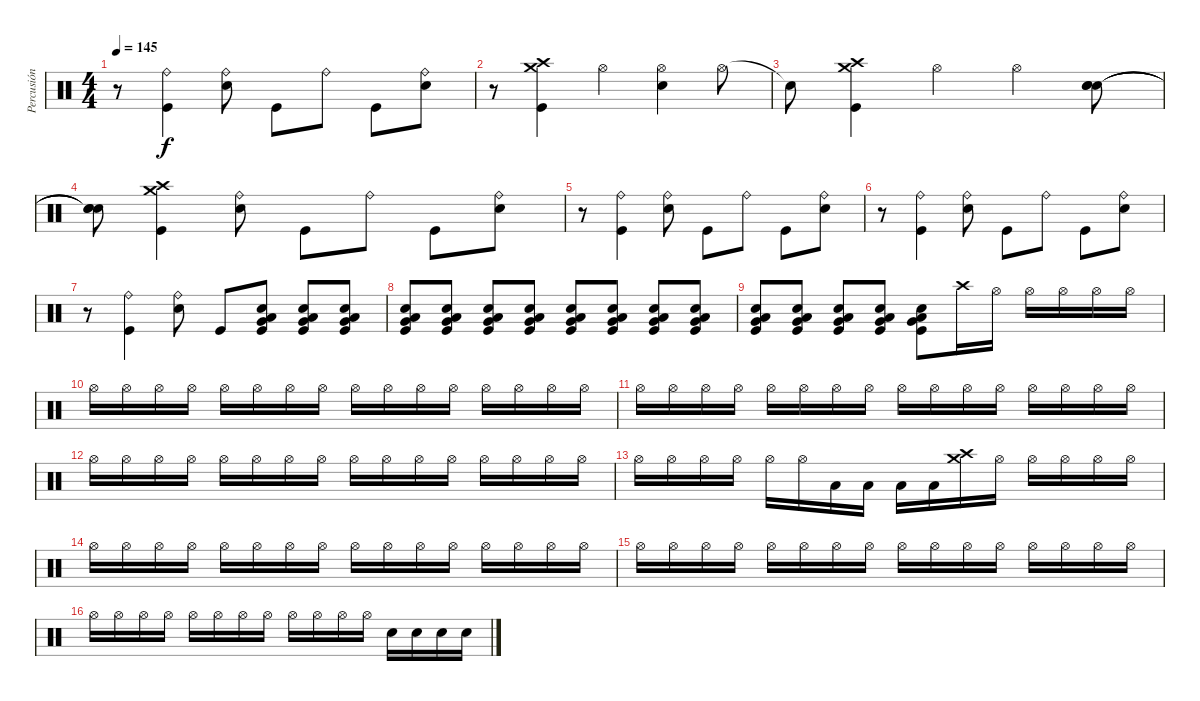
\track ("Percusión" "Percusión") {instrument percussion}
\staff {score}
\articulation defaults
\ts (4 4)
\tempo 145
\clef neutral
\ks c
r.8{dy f} ("Ride (bell)" "Kick (hit)").4 ("Ride (bell)" "Snare (hit) 2").8 "Kick (hit)".8 "Ride (bell)".8 "Kick (hit)".8 ("Ride (bell)" "Snare (hit) 2").8 |
r.8 ("Crash high (hit)" "Crash medium (hit)" "Kick (hit)").4 "Hi-Hat (open)".4 ("Hi-Hat (open)" "Snare (hit) 2").4 "Hi-Hat (open)".8 |
"Snare (hit)"{t}.8 ("Crash high (hit)" "Crash medium (hit)" "Kick (hit)").4 "Hi-Hat (open)".4 "Hi-Hat (open)".4 ("Snare (hit) 2" "Snare (hit) 2" "Snare (hit) 2").8 |
("Snare (hit)"{t} "Snare (hit)"{t} "Snare (hit)"{t}).8 ("Crash medium (hit)" "Crash high (hit)" "Kick (hit)").4 ("Ride (bell)" "Snare (hit) 2").8 "Kick (hit)".8 "Ride (bell)".8 "Kick (hit)".8 ("Ride (bell)" "Snare (hit) 2").8 |
r.8 ("Ride (bell)" "Kick (hit)").4 ("Ride (bell)" "Snare (hit) 2").8 "Kick (hit)".8 "Ride (bell)".8 "Kick (hit)".8 ("Ride (bell)" "Snare (hit) 2").8 |
r.8 ("Ride (bell)" "Kick (hit)").4 ("Ride (bell)" "Snare (hit) 2").8 "Kick (hit)".8 "Ride (bell)".8 "Kick (hit)".8 ("Ride (bell)" "Snare (hit) 2").8 |
r.8 ("Ride (bell)" "Kick (hit)").4 ("Ride (bell)" "Snare (hit) 2").8 "Kick (hit)".8 ("Very Low Tom (hit)" "Low Tom (hit)" "Snare (hit) 2" "Kick (hit)").8 ("Very Low Tom (hit)" "Low Tom (hit)" "Snare (hit) 2" "Kick (hit)").8 ("Very Low Tom (hit)" "Low Tom (hit)" "Snare (hit) 2" "Kick (hit)").8 |
("Very Low Tom (hit)" "Low Tom (hit)" "Snare (hit) 2" "Kick (hit)").8 ("Very Low Tom (hit)" "Low Tom (hit)" "Snare (hit) 2" "Kick (hit)").8 ("Very Low Tom (hit)" "Low Tom (hit)" "Snare (hit) 2" "Kick (hit)").8 ("Very Low Tom (hit)" "Low Tom (hit)" "Snare (hit) 2" "Kick (hit)").8 ("Very Low Tom (hit)" "Low Tom (hit)" "Snare (hit) 2" "Kick (hit)").8 ("Very Low Tom (hit)" "Low Tom (hit)" "Snare (hit) 2" "Kick (hit)").8 ("Very Low Tom (hit)" "Low Tom (hit)" "Snare (hit) 2" "Kick (hit)").8 ("Very Low Tom (hit)" "Low Tom (hit)" "Snare (hit) 2" "Kick (hit)").8 |
("Very Low Tom (hit)" "Low Tom (hit)" "Snare (hit) 2" "Kick (hit)").8 ("Very Low Tom (hit)" "Low Tom (hit)" "Snare (hit) 2" "Kick (hit)").8 ("Very Low Tom (hit)" "Low Tom (hit)" "Snare (hit) 2" "Kick (hit)").8 ("Very Low Tom (hit)" "Low Tom (hit)" "Snare (hit) 2" "Kick (hit)").8 ("Very Low Tom (hit)" "Low Tom (hit)" "Snare (hit) 2" "Kick (hit)").8 "Crash high (hit)".16 "Hi-Hat (open)".16 "Hi-Hat (open)".16 "Hi-Hat (open)".16 "Hi-Hat (open)".16 "Hi-Hat (open)".16 |
"Hi-Hat (open)".16 "Hi-Hat (open)".16 "Hi-Hat (open)".16 "Hi-Hat (open)".16 "Hi-Hat (open)".16 "Hi-Hat (open)".16 "Hi-Hat (open)".16 "Hi-Hat (open)".16 "Hi-Hat (open)".16 "Hi-Hat (open)".16 "Hi-Hat (open)".16 "Hi-Hat (open)".16 "Hi-Hat (open)".16 "Hi-Hat (open)".16 "Hi-Hat (open)".16 "Hi-Hat (open)".16 |
"Hi-Hat (open)".16 "Hi-Hat (open)".16 "Hi-Hat (open)".16 "Hi-Hat (open)".16 "Hi-Hat (open)".16 "Hi-Hat (open)".16 "Hi-Hat (open)".16 "Hi-Hat (open)".16 "Hi-Hat (open)".16 "Hi-Hat (open)".16 "Hi-Hat (open)".16 "Hi-Hat (open)".16 "Hi-Hat (open)".16 "Hi-Hat (open)".16 "Hi-Hat (open)".16 "Hi-Hat (open)".16 |
"Hi-Hat (open)".16 "Hi-Hat (open)".16 "Hi-Hat (open)".16 "Hi-Hat (open)".16 "Hi-Hat (open)".16 "Hi-Hat (open)".16 "Hi-Hat (open)".16 "Hi-Hat (open)".16 "Hi-Hat (open)".16 "Hi-Hat (open)".16 "Hi-Hat (open)".16 "Hi-Hat (open)".16 "Hi-Hat (open)".16 "Hi-Hat (open)".16 "Hi-Hat (open)".16 "Hi-Hat (open)".16 |
"Hi-Hat (open)".16 "Hi-Hat (open)".16 "Hi-Hat (open)".16 "Hi-Hat (open)".16 "Hi-Hat (open)".16 "Hi-Hat (open)".16 "Low Tom (hit)".16 "Low Tom (hit)".16 "Low Tom (hit)".16 "Low Tom (hit)".16 ("Crash medium (hit)" "Crash high (hit)").16 "Hi-Hat (open)".16 "Hi-Hat (open)".16 "Hi-Hat (open)".16 "Hi-Hat (open)".16 "Hi-Hat (open)".16 |
"Hi-Hat (open)".16 "Hi-Hat (open)".16 "Hi-Hat (open)".16 "Hi-Hat (open)".16 "Hi-Hat (open)".16 "Hi-Hat (open)".16 "Hi-Hat (open)".16 "Hi-Hat (open)".16 "Hi-Hat (open)".16 "Hi-Hat (open)".16 "Hi-Hat (open)".16 "Hi-Hat (open)".16 "Hi-Hat (open)".16 "Hi-Hat (open)".16 "Hi-Hat (open)".16 "Hi-Hat (open)".16 |
"Hi-Hat (open)".16 "Hi-Hat (open)".16 "Hi-Hat (open)".16 "Hi-Hat (open)".16 "Hi-Hat (open)".16 "Hi-Hat (open)".16 "Hi-Hat (open)".16 "Hi-Hat (open)".16 "Hi-Hat (open)".16 "Hi-Hat (open)".16 "Hi-Hat (open)".16 "Hi-Hat (open)".16 "Hi-Hat (open)".16 "Hi-Hat (open)".16 "Hi-Hat (open)".16 "Hi-Hat (open)".16 |
"Hi-Hat (open)".16 "Hi-Hat (open)".16 "Hi-Hat (open)".16 "Hi-Hat (open)".16 "Hi-Hat (open)".16 "Hi-Hat (open)".16 "Hi-Hat (open)".16 "Hi-Hat (open)".16 "Hi-Hat (open)".16 "Hi-Hat (open)".16 "Hi-Hat (open)".16 "Hi-Hat (open)".16 "Snare (hit) 2".16 "Snare (hit) 2".16 "Snare (hit) 2".16 "Snare (hit) 2".16
